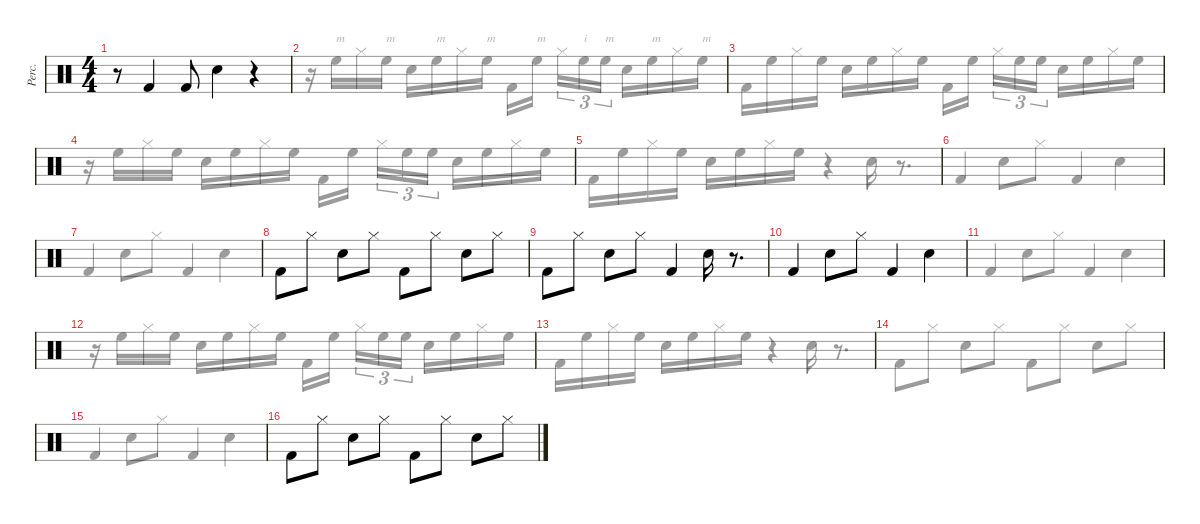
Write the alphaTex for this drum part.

\defaultSystemsLayout 4
\hideDynamics
\bracketExtendMode groupsimilarinstruments
\otherSystemsTrackNameOrientation horizontal
\track ("Percussions 1" "Perc.") {instrument percussion}
\staff {score}
\articulation defaults
\voice
\ts (4 4)
\tempo (120 hide)
\clef neutral
\ks c
r.8{dy mf beam Down} "Kick (hit) 2".4{beam Up} "Kick (hit) 2".8{beam Up} "Snare (hit) 2".4{beam Down} r.4{beam Down} |
|
|
|
|
|
|
"Kick (hit) 2".8{beam Down} "Hi-Hat (closed)".8{beam Down} "Snare (hit) 2".8{beam Down} "Hi-Hat (closed)".8{beam Down} "Kick (hit) 2".8{beam Down} "Hi-Hat (closed)".8{beam Down} "Snare (hit) 2".8{beam Down} "Hi-Hat (closed)".8{beam Down} |
"Kick (hit) 2".8{beam Down} "Hi-Hat (closed)".8{beam Down} "Snare (hit) 2".8{beam Down} "Hi-Hat (closed)".8{beam Down} "Kick (hit) 2".4{beam Up} "Snare (hit) 2".16{beam Down} r.8{d beam Down} |
"Kick (hit) 2".4{beam Up} "Snare (hit) 2".8{beam Down} "Hi-Hat (closed)".8{beam Down} "Kick (hit) 2".4{beam Up} "Snare (hit) 2".4{beam Down} |
|
|
|
|
|
"Kick (hit) 2".8{beam Down} "Hi-Hat (closed)".8{beam Down} "Snare (hit) 2".8{beam Down} "Hi-Hat (closed)".8{beam Down} "Kick (hit) 2".8{beam Down} "Hi-Hat (closed)".8{beam Down} "Snare (hit) 2".8{beam Down} "Hi-Hat (closed)".8{beam Down}
\voice
\clef neutral
\ottava regular
\simile none
\ks c
|
|
|
|
|
|
|
|
|
|
|
|
|
|
|
\voice
\clef neutral
\ottava regular
\simile none
\ks c
|
r.16{beam Down} "High Floor Tom (hit)".16{txt "m" beam Down} "Hi-Hat (closed)".16{beam Down} "High Floor Tom (hit)".16{txt "m" beam Down} "Snare (hit) 2".16{beam Down} "High Floor Tom (hit)".16{txt "m" beam Down} "Hi-Hat (closed)".16{beam Down} "High Floor Tom (hit)".16{txt "m" beam Down} "Kick (hit) 2".16{beam Down} "High Floor Tom (hit)".16{txt "m" beam Down} "Hi-Hat (closed)".16{tu (3 2) beam Down} "High Floor Tom (hit)".16{tu (3 2) txt "i" beam Down} "High Floor Tom (hit)".16{tu (3 2) txt "m" beam Down} "Snare (hit) 2".16{beam Down} "High Floor Tom (hit)".16{txt "m" beam Down} "Hi-Hat (closed)".16{beam Down} "High Floor Tom (hit)".16{txt "m" beam Down} |
"Kick (hit) 2".16{beam Down} "High Floor Tom (hit)".16{beam Down} "Hi-Hat (closed)".16{beam Down} "High Floor Tom (hit)".16{beam Down} "Snare (hit) 2".16{beam Down} "High Floor Tom (hit)".16{beam Down} "Hi-Hat (closed)".16{beam Down} "High Floor Tom (hit)".16{beam Down} "Kick (hit) 2".16{beam Down} "High Floor Tom (hit)".16{beam Down} "Hi-Hat (closed)".16{tu (3 2) beam Down} "High Floor Tom (hit)".16{tu (3 2) beam Down} "High Floor Tom (hit)".16{tu (3 2) beam Down} "Snare (hit) 2".16{beam Down} "High Floor Tom (hit)".16{beam Down} "Hi-Hat (closed)".16{beam Down} "High Floor Tom (hit)".16{beam Down} |
r.16{beam Down} "High Floor Tom (hit)".16{beam Down} "Hi-Hat (closed)".16{beam Down} "High Floor Tom (hit)".16{beam Down} "Snare (hit) 2".16{beam Down} "High Floor Tom (hit)".16{beam Down} "Hi-Hat (closed)".16{beam Down} "High Floor Tom (hit)".16{beam Down} "Kick (hit) 2".16{beam Down} "High Floor Tom (hit)".16{beam Down} "Hi-Hat (closed)".16{tu (3 2) beam Down} "High Floor Tom (hit)".16{tu (3 2) beam Down} "High Floor Tom (hit)".16{tu (3 2) beam Down} "Snare (hit) 2".16{beam Down} "High Floor Tom (hit)".16{beam Down} "Hi-Hat (closed)".16{beam Down} "High Floor Tom (hit)".16{beam Down} |
"Kick (hit) 2".16{beam Down} "High Floor Tom (hit)".16{beam Down} "Hi-Hat (closed)".16{beam Down} "High Floor Tom (hit)".16{beam Down} "Snare (hit) 2".16{beam Down} "High Floor Tom (hit)".16{beam Down} "Hi-Hat (closed)".16{beam Down} "High Floor Tom (hit)".16{beam Down} r.4{beam Down} "Snare (hit) 2".16{beam Down} r.8{d beam Down} |
"Kick (hit) 2".4{beam Up} "Snare (hit) 2".8{beam Down} "Hi-Hat (closed)".8{beam Down} "Kick (hit) 2".4{beam Up} "Snare (hit) 2".4{beam Down} |
"Kick (hit) 2".4{beam Up} "Snare (hit) 2".8{beam Down} "Hi-Hat (closed)".8{beam Down} "Kick (hit) 2".4{beam Up} "Snare (hit) 2".4{beam Down} |
|
|
|
"Kick (hit) 2".4{beam Up} "Snare (hit) 2".8{beam Down} "Hi-Hat (closed)".8{beam Down} "Kick (hit) 2".4{beam Up} "Snare (hit) 2".4{beam Down} |
r.16{beam Down} "High Floor Tom (hit)".16{beam Down} "Hi-Hat (closed)".16{beam Down} "High Floor Tom (hit)".16{beam Down} "Snare (hit) 2".16{beam Down} "High Floor Tom (hit)".16{beam Down} "Hi-Hat (closed)".16{beam Down} "High Floor Tom (hit)".16{beam Down} "Kick (hit) 2".16{beam Down} "High Floor Tom (hit)".16{beam Down} "Hi-Hat (closed)".16{tu (3 2) beam Down} "High Floor Tom (hit)".16{tu (3 2) beam Down} "High Floor Tom (hit)".16{tu (3 2) beam Down} "Snare (hit) 2".16{beam Down} "High Floor Tom (hit)".16{beam Down} "Hi-Hat (closed)".16{beam Down} "High Floor Tom (hit)".16{beam Down} |
"Kick (hit) 2".16{beam Down} "High Floor Tom (hit)".16{beam Down} "Hi-Hat (closed)".16{beam Down} "High Floor Tom (hit)".16{beam Down} "Snare (hit) 2".16{beam Down} "High Floor Tom (hit)".16{beam Down} "Hi-Hat (closed)".16{beam Down} "High Floor Tom (hit)".16{beam Down} r.4{beam Down} "Snare (hit) 2".16{beam Down} r.8{d beam Down} |
"Kick (hit) 2".8{beam Down} "Hi-Hat (closed)".8{beam Down} "Snare (hit) 2".8{beam Down} "Hi-Hat (closed)".8{beam Down} "Kick (hit) 2".8{beam Down} "Hi-Hat (closed)".8{beam Down} "Snare (hit) 2".8{beam Down} "Hi-Hat (closed)".8{beam Down} |
"Kick (hit) 2".4{beam Up} "Snare (hit) 2".8{beam Down} "Hi-Hat (closed)".8{beam Down} "Kick (hit) 2".4{beam Up} "Snare (hit) 2".4{beam Down} |
